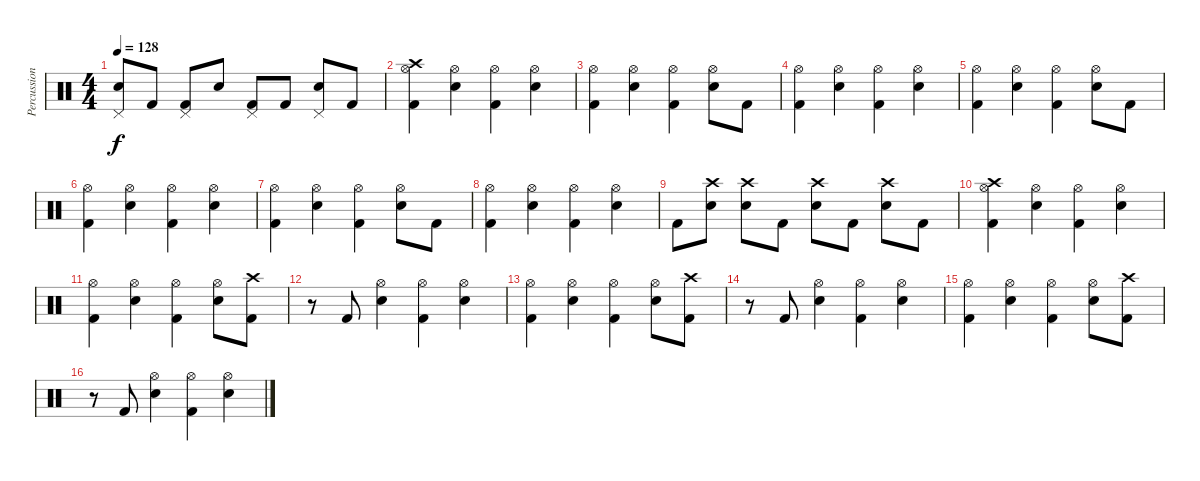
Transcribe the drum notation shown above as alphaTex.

\track ("Percussion" "Percussion") {instrument percussion}
\staff {score}
\articulation defaults
\ts (4 4)
\tempo 128
\clef neutral
\ks c
("Snare (hit) 2" "Pedal Hi-Hat (hit)").8{dy f} "Kick (hit) 2".8 ("Kick (hit) 2" "Pedal Hi-Hat (hit)").8 "Snare (hit) 2".8 ("Kick (hit) 2" "Pedal Hi-Hat (hit)").8 "Kick (hit) 2".8 ("Snare (hit) 2" "Pedal Hi-Hat (hit)").8 "Kick (hit) 2".8 |
("Kick (hit) 2" "Hi-Hat (open)" "Crash high (hit)").4 ("Snare (hit) 2" "Hi-Hat (open)").4 ("Kick (hit) 2" "Hi-Hat (open)").4 ("Snare (hit) 2" "Hi-Hat (open)").4 |
("Kick (hit) 2" "Hi-Hat (open)").4 ("Snare (hit) 2" "Hi-Hat (open)").4 ("Kick (hit) 2" "Hi-Hat (open)").4 ("Snare (hit) 2" "Hi-Hat (open)").8 "Kick (hit) 2".8 |
("Kick (hit) 2" "Hi-Hat (open)").4 ("Snare (hit) 2" "Hi-Hat (open)").4 ("Kick (hit) 2" "Hi-Hat (open)").4 ("Snare (hit) 2" "Hi-Hat (open)").4 |
("Kick (hit) 2" "Hi-Hat (open)").4 ("Snare (hit) 2" "Hi-Hat (open)").4 ("Kick (hit) 2" "Hi-Hat (open)").4 ("Snare (hit) 2" "Hi-Hat (open)").8 "Kick (hit) 2".8 |
("Kick (hit) 2" "Hi-Hat (open)").4 ("Snare (hit) 2" "Hi-Hat (open)").4 ("Kick (hit) 2" "Hi-Hat (open)").4 ("Snare (hit) 2" "Hi-Hat (open)").4 |
("Kick (hit) 2" "Hi-Hat (open)").4 ("Snare (hit) 2" "Hi-Hat (open)").4 ("Kick (hit) 2" "Hi-Hat (open)").4 ("Snare (hit) 2" "Hi-Hat (open)").8 "Kick (hit) 2".8 |
("Kick (hit) 2" "Hi-Hat (open)").4 ("Snare (hit) 2" "Hi-Hat (open)").4 ("Kick (hit) 2" "Hi-Hat (open)").4 ("Snare (hit) 2" "Hi-Hat (open)").4 |
"Kick (hit) 2".8 ("Snare (hit) 2" "Crash high (hit)").8 ("Snare (hit) 2" "Crash high (hit)").8 "Kick (hit) 2".8 ("Snare (hit) 2" "Crash high (hit)").8 "Kick (hit) 2".8 ("Snare (hit) 2" "Crash high (hit)").8 "Kick (hit) 2".8 |
("Kick (hit) 2" "Hi-Hat (open)" "Crash high (hit)").4 ("Snare (hit) 2" "Hi-Hat (open)").4 ("Kick (hit) 2" "Hi-Hat (open)").4 ("Snare (hit) 2" "Hi-Hat (open)").4 |
("Kick (hit) 2" "Hi-Hat (open)").4 ("Snare (hit) 2" "Hi-Hat (open)").4 ("Kick (hit) 2" "Hi-Hat (open)").4 ("Snare (hit) 2" "Hi-Hat (open)").8 ("Kick (hit) 2" "Crash high (hit)").8 |
r.8 "Kick (hit) 2".8 ("Snare (hit) 2" "Hi-Hat (open)").4 ("Kick (hit) 2" "Hi-Hat (open)").4 ("Snare (hit) 2" "Hi-Hat (open)").4 |
("Kick (hit) 2" "Hi-Hat (open)").4 ("Snare (hit) 2" "Hi-Hat (open)").4 ("Kick (hit) 2" "Hi-Hat (open)").4 ("Snare (hit) 2" "Hi-Hat (open)").8 ("Kick (hit) 2" "Crash high (hit)").8 |
r.8 "Kick (hit) 2".8 ("Snare (hit) 2" "Hi-Hat (open)").4 ("Kick (hit) 2" "Hi-Hat (open)").4 ("Snare (hit) 2" "Hi-Hat (open)").4 |
("Kick (hit) 2" "Hi-Hat (open)").4 ("Snare (hit) 2" "Hi-Hat (open)").4 ("Kick (hit) 2" "Hi-Hat (open)").4 ("Snare (hit) 2" "Hi-Hat (open)").8 ("Kick (hit) 2" "Crash high (hit)").8 |
r.8 "Kick (hit) 2".8 ("Snare (hit) 2" "Hi-Hat (open)").4 ("Kick (hit) 2" "Hi-Hat (open)").4 ("Snare (hit) 2" "Hi-Hat (open)").4
